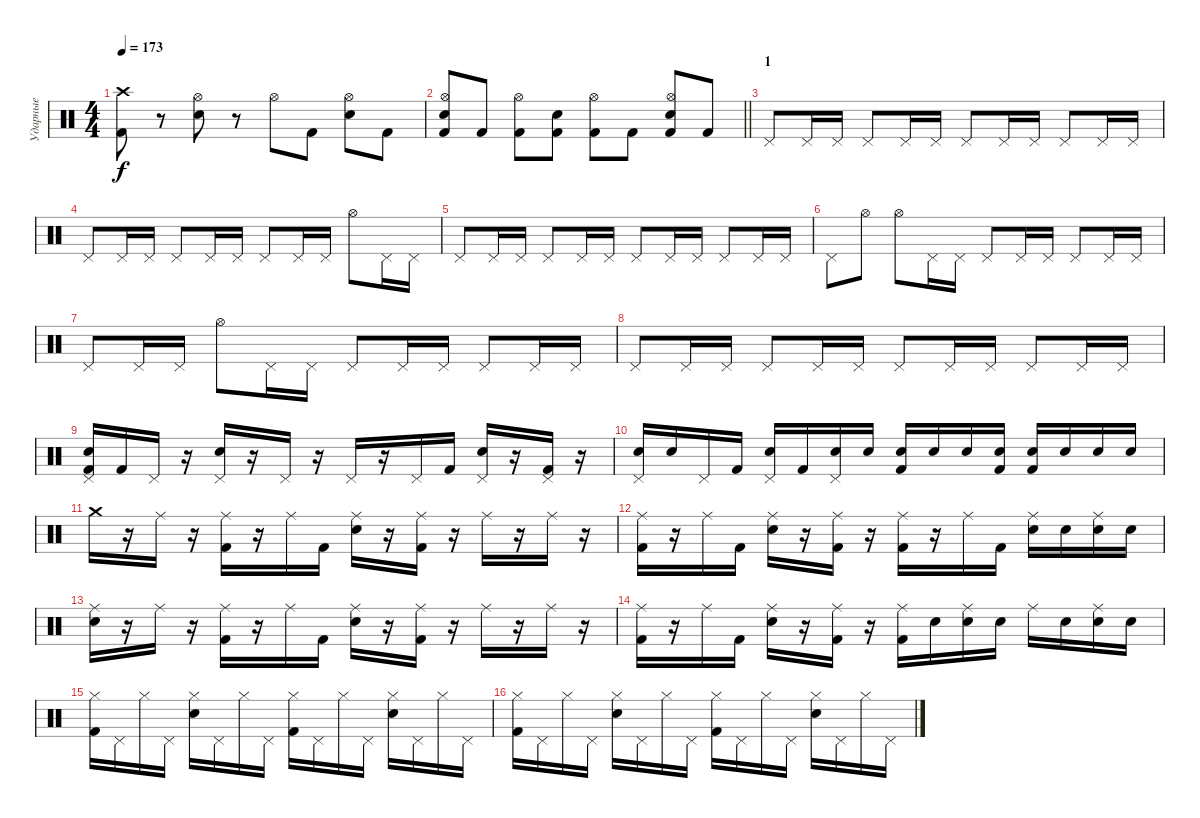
\track ("Ударные" "Ударные") {instrument percussion}
\staff {score}
\articulation defaults
\ts (4 4)
\tempo 173
\clef neutral
\ks c
("Crash high (hit)" "Kick (hit) 2").8{dy f} r.8 ("Hi-Hat (open)" "Snare (hit) 2").8 r.8 "Hi-Hat (open)".8 "Kick (hit) 2".8 ("Hi-Hat (open)" "Snare (hit) 2").8 "Kick (hit) 2".8 |
\barLineRight lightlight
("Hi-Hat (open)" "Snare (hit) 2" "Kick (hit) 2").8 "Kick (hit) 2".8 ("Hi-Hat (open)" "Kick (hit) 2").8 ("Snare (hit) 2" "Kick (hit) 2").8 ("Hi-Hat (open)" "Kick (hit) 2").8 "Kick (hit) 2".8 ("Hi-Hat (open)" "Snare (hit) 2" "Kick (hit) 2").8 "Kick (hit) 2".8 |
\section ("" "1")
"Pedal Hi-Hat (hit)".8 "Pedal Hi-Hat (hit)".16 "Pedal Hi-Hat (hit)".16 "Pedal Hi-Hat (hit)".8 "Pedal Hi-Hat (hit)".16 "Pedal Hi-Hat (hit)".16 "Pedal Hi-Hat (hit)".8 "Pedal Hi-Hat (hit)".16 "Pedal Hi-Hat (hit)".16 "Pedal Hi-Hat (hit)".8 "Pedal Hi-Hat (hit)".16 "Pedal Hi-Hat (hit)".16 |
"Pedal Hi-Hat (hit)".8 "Pedal Hi-Hat (hit)".16 "Pedal Hi-Hat (hit)".16 "Pedal Hi-Hat (hit)".8 "Pedal Hi-Hat (hit)".16 "Pedal Hi-Hat (hit)".16 "Pedal Hi-Hat (hit)".8 "Pedal Hi-Hat (hit)".16 "Pedal Hi-Hat (hit)".16 "Hi-Hat (open)".8 "Pedal Hi-Hat (hit)".16 "Pedal Hi-Hat (hit)".16 |
"Pedal Hi-Hat (hit)".8 "Pedal Hi-Hat (hit)".16 "Pedal Hi-Hat (hit)".16 "Pedal Hi-Hat (hit)".8 "Pedal Hi-Hat (hit)".16 "Pedal Hi-Hat (hit)".16 "Pedal Hi-Hat (hit)".8 "Pedal Hi-Hat (hit)".16 "Pedal Hi-Hat (hit)".16 "Pedal Hi-Hat (hit)".8 "Pedal Hi-Hat (hit)".16 "Pedal Hi-Hat (hit)".16 |
"Pedal Hi-Hat (hit)".8 "Hi-Hat (open)".8 "Hi-Hat (open)".8 "Pedal Hi-Hat (hit)".16 "Pedal Hi-Hat (hit)".16 "Pedal Hi-Hat (hit)".8 "Pedal Hi-Hat (hit)".16 "Pedal Hi-Hat (hit)".16 "Pedal Hi-Hat (hit)".8 "Pedal Hi-Hat (hit)".16 "Pedal Hi-Hat (hit)".16 |
"Pedal Hi-Hat (hit)".8 "Pedal Hi-Hat (hit)".16 "Pedal Hi-Hat (hit)".16 "Hi-Hat (open)".8 "Pedal Hi-Hat (hit)".16 "Pedal Hi-Hat (hit)".16 "Pedal Hi-Hat (hit)".8 "Pedal Hi-Hat (hit)".16 "Pedal Hi-Hat (hit)".16 "Pedal Hi-Hat (hit)".8 "Pedal Hi-Hat (hit)".16 "Pedal Hi-Hat (hit)".16 |
"Pedal Hi-Hat (hit)".8 "Pedal Hi-Hat (hit)".16 "Pedal Hi-Hat (hit)".16 "Pedal Hi-Hat (hit)".8 "Pedal Hi-Hat (hit)".16 "Pedal Hi-Hat (hit)".16 "Pedal Hi-Hat (hit)".8 "Pedal Hi-Hat (hit)".16 "Pedal Hi-Hat (hit)".16 "Pedal Hi-Hat (hit)".8 "Pedal Hi-Hat (hit)".16 "Pedal Hi-Hat (hit)".16 |
("Pedal Hi-Hat (hit)" "Snare (hit) 2" "Kick (hit) 2").16 "Kick (hit) 2".16 "Pedal Hi-Hat (hit)".16 r.16 ("Pedal Hi-Hat (hit)" "Snare (hit) 2").16 r.16 "Pedal Hi-Hat (hit)".16 r.16 "Pedal Hi-Hat (hit)".16 r.16 "Pedal Hi-Hat (hit)".16 "Kick (hit) 2".16 ("Pedal Hi-Hat (hit)" "Snare (hit) 2").16 r.16 ("Pedal Hi-Hat (hit)" "Kick (hit) 2").16 r.16 |
("Pedal Hi-Hat (hit)" "Snare (hit) 2").16 "Snare (hit) 2".16 "Pedal Hi-Hat (hit)".16 "Kick (hit) 2".16 ("Pedal Hi-Hat (hit)" "Snare (hit) 2").16 "Kick (hit) 2".16 ("Pedal Hi-Hat (hit)" "Snare (hit) 2").16 "Snare (hit) 2".16 ("Snare (hit) 2" "Kick (hit) 2").16 "Snare (hit) 2".16 "Snare (hit) 2".16 ("Snare (hit) 2" "Kick (hit) 2").16 ("Snare (hit) 2" "Kick (hit) 2").16 "Snare (hit) 2".16 "Snare (hit) 2".16 "Snare (hit) 2".16 |
"Crash medium (hit)".16 r.16 "Ride (middle)".16 r.16 ("Ride (middle)" "Kick (hit) 2").16 r.16 "Ride (middle)".16 "Kick (hit) 2".16 ("Ride (middle)" "Snare (hit) 2").16 r.16 ("Ride (middle)" "Kick (hit) 2").16 r.16 "Ride (middle)".16 r.16 "Ride (middle)".16 r.16 |
("Ride (middle)" "Kick (hit) 2").16 r.16 "Ride (middle)".16 "Kick (hit) 2".16 ("Ride (middle)" "Snare (hit) 2").16 r.16 ("Ride (middle)" "Kick (hit) 2").16 r.16 ("Ride (middle)" "Kick (hit) 2").16 r.16 "Ride (middle)".16 "Kick (hit) 2".16 ("Ride (middle)" "Snare (hit) 2").16 "Snare (hit) 2".16 ("Ride (middle)" "Snare (hit) 2").16 "Snare (hit) 2".16 |
("Ride (middle)" "Snare (hit) 2").16 r.16 "Ride (middle)".16 r.16 ("Ride (middle)" "Kick (hit) 2").16 r.16 "Ride (middle)".16 "Kick (hit) 2".16 ("Ride (middle)" "Snare (hit) 2").16 r.16 ("Ride (middle)" "Kick (hit) 2").16 r.16 "Ride (middle)".16 r.16 "Ride (middle)".16 r.16 |
("Ride (middle)" "Kick (hit) 2").16 r.16 "Ride (middle)".16 "Kick (hit) 2".16 ("Ride (middle)" "Snare (hit) 2").16 r.16 ("Ride (middle)" "Kick (hit) 2").16 r.16 ("Ride (middle)" "Kick (hit) 2").16 "Snare (hit) 2".16 ("Ride (middle)" "Snare (hit) 2").16 "Snare (hit) 2".16 "Ride (middle)".16 "Snare (hit) 2".16 ("Ride (middle)" "Snare (hit) 2").16 "Snare (hit) 2".16 |
("Hi-Hat (closed)" "Kick (hit) 2").16 "Pedal Hi-Hat (hit)".16 "Hi-Hat (closed)".16 "Pedal Hi-Hat (hit)".16 ("Hi-Hat (closed)" "Snare (hit) 2").16 "Pedal Hi-Hat (hit)".16 "Hi-Hat (closed)".16 "Pedal Hi-Hat (hit)".16 ("Hi-Hat (closed)" "Kick (hit) 2").16 "Pedal Hi-Hat (hit)".16 "Hi-Hat (closed)".16 "Pedal Hi-Hat (hit)".16 ("Hi-Hat (closed)" "Snare (hit) 2").16 "Pedal Hi-Hat (hit)".16 "Hi-Hat (closed)".16 "Pedal Hi-Hat (hit)".16 |
("Hi-Hat (closed)" "Kick (hit) 2").16 "Pedal Hi-Hat (hit)".16 "Hi-Hat (closed)".16 "Pedal Hi-Hat (hit)".16 ("Hi-Hat (closed)" "Snare (hit) 2").16 "Pedal Hi-Hat (hit)".16 "Hi-Hat (closed)".16 "Pedal Hi-Hat (hit)".16 ("Hi-Hat (closed)" "Kick (hit) 2").16 "Pedal Hi-Hat (hit)".16 "Hi-Hat (closed)".16 "Pedal Hi-Hat (hit)".16 ("Hi-Hat (closed)" "Snare (hit) 2").16 "Pedal Hi-Hat (hit)".16 "Hi-Hat (closed)".16 "Pedal Hi-Hat (hit)".16
